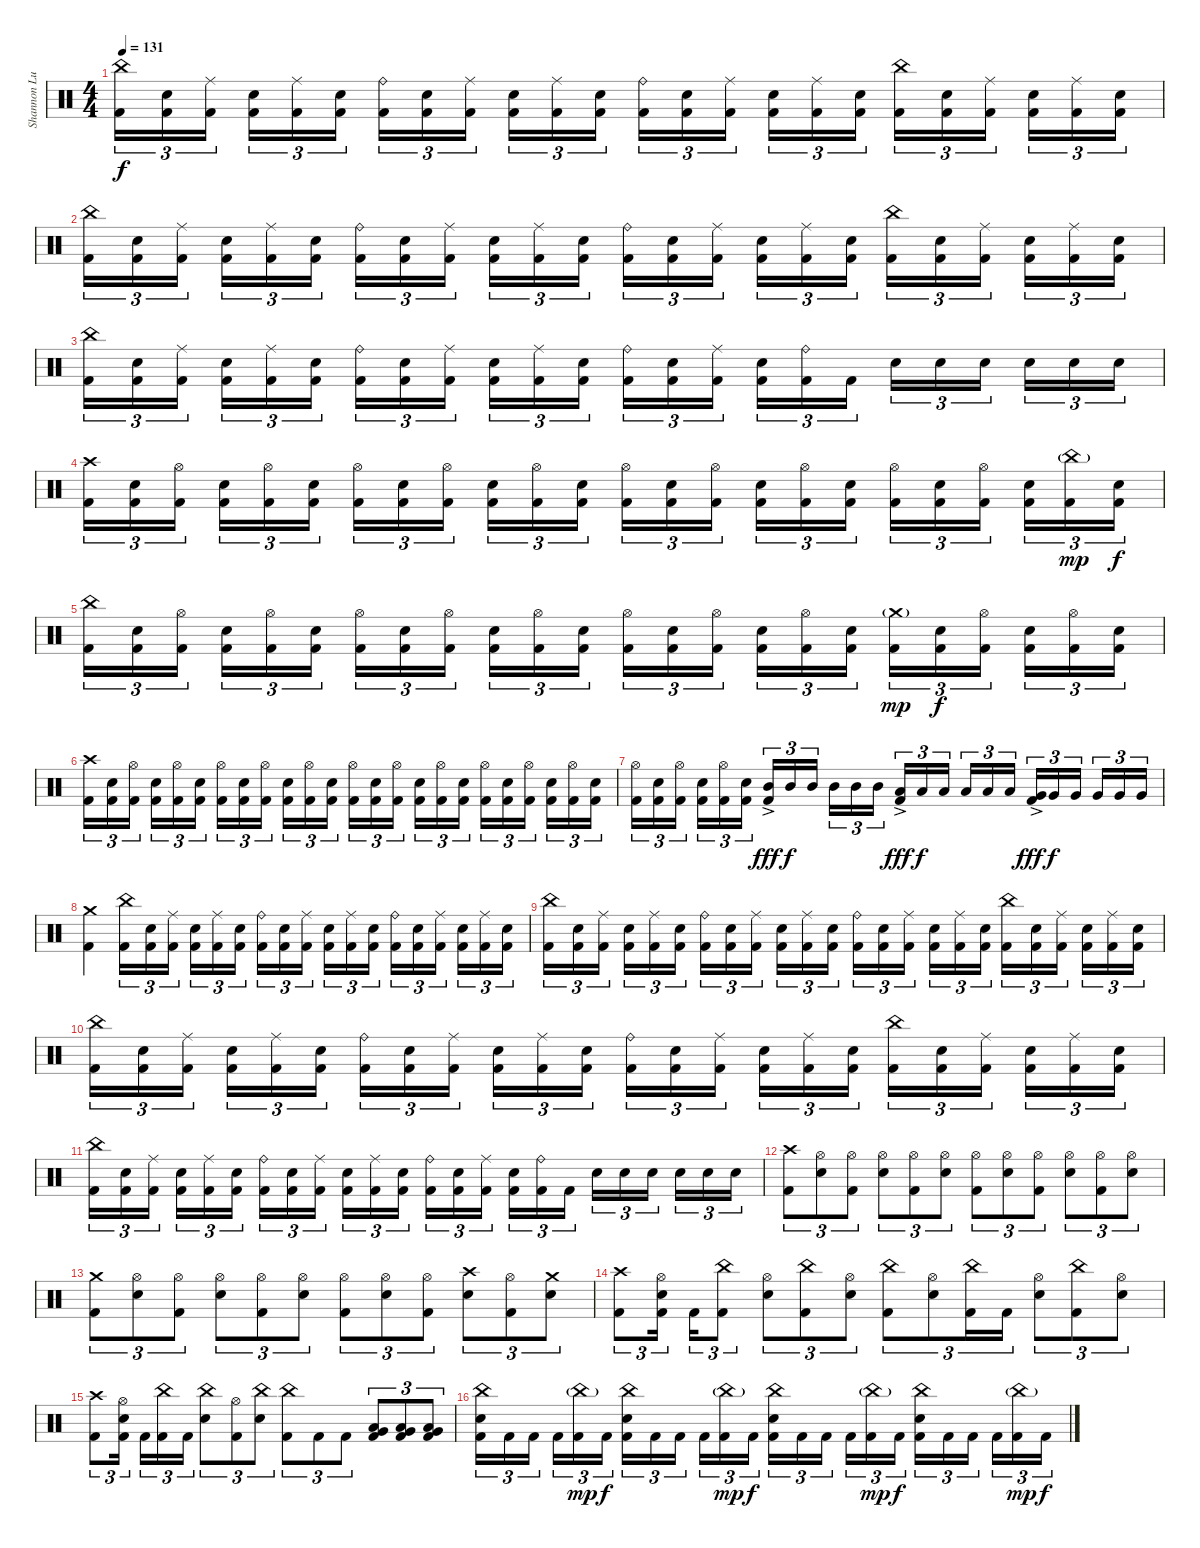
\track ("Shannon Lucas [Drums (Since 2007)]" "Shannon Lu") {instrument percussion}
\staff {score}
\articulation defaults
\ts (4 4)
\tempo 131
\clef neutral
\ks c
("China (hit)" "Kick (hit) 2").16{tu (3 2) dy f} ("Snare (hit) 2" "Kick (hit) 2").16{tu (3 2)} ("Ride (middle)" "Kick (hit) 2").16{tu (3 2)} ("Snare (hit) 2" "Kick (hit) 2").16{tu (3 2)} ("Ride (middle)" "Kick (hit) 2").16{tu (3 2)} ("Snare (hit) 2" "Kick (hit) 2").16{tu (3 2)} ("Ride (bell)" "Kick (hit) 2").16{tu (3 2)} ("Snare (hit) 2" "Kick (hit) 2").16{tu (3 2)} ("Ride (middle)" "Kick (hit) 2").16{tu (3 2)} ("Snare (hit) 2" "Kick (hit) 2").16{tu (3 2)} ("Ride (middle)" "Kick (hit) 2").16{tu (3 2)} ("Snare (hit) 2" "Kick (hit) 2").16{tu (3 2)} ("Ride (bell)" "Kick (hit) 2").16{tu (3 2)} ("Snare (hit) 2" "Kick (hit) 2").16{tu (3 2)} ("Ride (middle)" "Kick (hit) 2").16{tu (3 2)} ("Snare (hit) 2" "Kick (hit) 2").16{tu (3 2)} ("Ride (middle)" "Kick (hit) 2").16{tu (3 2)} ("Snare (hit) 2" "Kick (hit) 2").16{tu (3 2)} ("China (hit)" "Kick (hit) 2").16{tu (3 2)} ("Snare (hit) 2" "Kick (hit) 2").16{tu (3 2)} ("Ride (middle)" "Kick (hit) 2").16{tu (3 2)} ("Snare (hit) 2" "Kick (hit) 2").16{tu (3 2)} ("Ride (middle)" "Kick (hit) 2").16{tu (3 2)} ("Snare (hit) 2" "Kick (hit) 2").16{tu (3 2)} |
("China (hit)" "Kick (hit) 2").16{tu (3 2)} ("Snare (hit) 2" "Kick (hit) 2").16{tu (3 2)} ("Ride (middle)" "Kick (hit) 2").16{tu (3 2)} ("Snare (hit) 2" "Kick (hit) 2").16{tu (3 2)} ("Ride (middle)" "Kick (hit) 2").16{tu (3 2)} ("Snare (hit) 2" "Kick (hit) 2").16{tu (3 2)} ("Ride (bell)" "Kick (hit) 2").16{tu (3 2)} ("Snare (hit) 2" "Kick (hit) 2").16{tu (3 2)} ("Ride (middle)" "Kick (hit) 2").16{tu (3 2)} ("Snare (hit) 2" "Kick (hit) 2").16{tu (3 2)} ("Ride (middle)" "Kick (hit) 2").16{tu (3 2)} ("Snare (hit) 2" "Kick (hit) 2").16{tu (3 2)} ("Ride (bell)" "Kick (hit) 2").16{tu (3 2)} ("Snare (hit) 2" "Kick (hit) 2").16{tu (3 2)} ("Ride (middle)" "Kick (hit) 2").16{tu (3 2)} ("Snare (hit) 2" "Kick (hit) 2").16{tu (3 2)} ("Ride (middle)" "Kick (hit) 2").16{tu (3 2)} ("Snare (hit) 2" "Kick (hit) 2").16{tu (3 2)} ("China (hit)" "Kick (hit) 2").16{tu (3 2)} ("Snare (hit) 2" "Kick (hit) 2").16{tu (3 2)} ("Ride (middle)" "Kick (hit) 2").16{tu (3 2)} ("Snare (hit) 2" "Kick (hit) 2").16{tu (3 2)} ("Ride (middle)" "Kick (hit) 2").16{tu (3 2)} ("Snare (hit) 2" "Kick (hit) 2").16{tu (3 2)} |
("China (hit)" "Kick (hit) 2").16{tu (3 2)} ("Snare (hit) 2" "Kick (hit) 2").16{tu (3 2)} ("Ride (middle)" "Kick (hit) 2").16{tu (3 2)} ("Snare (hit) 2" "Kick (hit) 2").16{tu (3 2)} ("Ride (middle)" "Kick (hit) 2").16{tu (3 2)} ("Snare (hit) 2" "Kick (hit) 2").16{tu (3 2)} ("Ride (bell)" "Kick (hit) 2").16{tu (3 2)} ("Snare (hit) 2" "Kick (hit) 2").16{tu (3 2)} ("Ride (middle)" "Kick (hit) 2").16{tu (3 2)} ("Snare (hit) 2" "Kick (hit) 2").16{tu (3 2)} ("Ride (middle)" "Kick (hit) 2").16{tu (3 2)} ("Snare (hit) 2" "Kick (hit) 2").16{tu (3 2)} ("Ride (bell)" "Kick (hit) 2").16{tu (3 2)} ("Snare (hit) 2" "Kick (hit) 2").16{tu (3 2)} ("Ride (middle)" "Kick (hit) 2").16{tu (3 2)} ("Snare (hit) 2" "Kick (hit) 2").16{tu (3 2)} ("Ride (bell)" "Kick (hit) 2").16{tu (3 2)} "Kick (hit) 2".16{tu (3 2)} "Snare (hit) 2".16{tu (3 2)} "Snare (hit) 2".16{tu (3 2)} "Snare (hit) 2".16{tu (3 2)} "Snare (hit) 2".16{tu (3 2)} "Snare (hit) 2".16{tu (3 2)} "Snare (hit) 2".16{tu (3 2)} |
("Crash high (hit)" "Kick (hit) 2").16{tu (3 2)} ("Snare (hit) 2" "Kick (hit) 2").16{tu (3 2)} ("Hi-Hat (open)" "Kick (hit) 2").16{tu (3 2)} ("Snare (hit) 2" "Kick (hit) 2").16{tu (3 2)} ("Hi-Hat (open)" "Kick (hit) 2").16{tu (3 2)} ("Snare (hit) 2" "Kick (hit) 2").16{tu (3 2)} ("Hi-Hat (open)" "Kick (hit) 2").16{tu (3 2)} ("Snare (hit) 2" "Kick (hit) 2").16{tu (3 2)} ("Hi-Hat (open)" "Kick (hit) 2").16{tu (3 2)} ("Snare (hit) 2" "Kick (hit) 2").16{tu (3 2)} ("Hi-Hat (open)" "Kick (hit) 2").16{tu (3 2)} ("Snare (hit) 2" "Kick (hit) 2").16{tu (3 2)} ("Hi-Hat (open)" "Kick (hit) 2").16{tu (3 2)} ("Snare (hit) 2" "Kick (hit) 2").16{tu (3 2)} ("Hi-Hat (open)" "Kick (hit) 2").16{tu (3 2)} ("Snare (hit) 2" "Kick (hit) 2").16{tu (3 2)} ("Hi-Hat (open)" "Kick (hit) 2").16{tu (3 2)} ("Snare (hit) 2" "Kick (hit) 2").16{tu (3 2)} ("Hi-Hat (open)" "Kick (hit) 2").16{tu (3 2)} ("Snare (hit) 2" "Kick (hit) 2").16{tu (3 2)} ("Hi-Hat (open)" "Kick (hit) 2").16{tu (3 2)} ("Snare (hit) 2" "Kick (hit) 2").16{tu (3 2)} ("China (hit)"{g} "Kick (hit) 2").16{tu (3 2) dy mp} ("Snare (hit) 2" "Kick (hit) 2").16{tu (3 2) dy f} |
("China (hit)" "Kick (hit) 2").16{tu (3 2)} ("Snare (hit) 2" "Kick (hit) 2").16{tu (3 2)} ("Hi-Hat (open)" "Kick (hit) 2").16{tu (3 2)} ("Snare (hit) 2" "Kick (hit) 2").16{tu (3 2)} ("Hi-Hat (open)" "Kick (hit) 2").16{tu (3 2)} ("Snare (hit) 2" "Kick (hit) 2").16{tu (3 2)} ("Hi-Hat (open)" "Kick (hit) 2").16{tu (3 2)} ("Snare (hit) 2" "Kick (hit) 2").16{tu (3 2)} ("Hi-Hat (open)" "Kick (hit) 2").16{tu (3 2)} ("Snare (hit) 2" "Kick (hit) 2").16{tu (3 2)} ("Hi-Hat (open)" "Kick (hit) 2").16{tu (3 2)} ("Snare (hit) 2" "Kick (hit) 2").16{tu (3 2)} ("Hi-Hat (open)" "Kick (hit) 2").16{tu (3 2)} ("Snare (hit) 2" "Kick (hit) 2").16{tu (3 2)} ("Hi-Hat (open)" "Kick (hit) 2").16{tu (3 2)} ("Snare (hit) 2" "Kick (hit) 2").16{tu (3 2)} ("Hi-Hat (open)" "Kick (hit) 2").16{tu (3 2)} ("Snare (hit) 2" "Kick (hit) 2").16{tu (3 2)} ("Crash medium (hit)"{g} "Kick (hit) 2").16{tu (3 2) dy mp} ("Snare (hit) 2" "Kick (hit) 2").16{tu (3 2) dy f} ("Hi-Hat (open)" "Kick (hit) 2").16{tu (3 2)} ("Snare (hit) 2" "Kick (hit) 2").16{tu (3 2)} ("Hi-Hat (open)" "Kick (hit) 2").16{tu (3 2)} ("Snare (hit) 2" "Kick (hit) 2").16{tu (3 2)} |
("Crash high (hit)" "Kick (hit) 2").16{tu (3 2)} ("Snare (hit) 2" "Kick (hit) 2").16{tu (3 2)} ("Hi-Hat (open)" "Kick (hit) 2").16{tu (3 2)} ("Snare (hit) 2" "Kick (hit) 2").16{tu (3 2)} ("Hi-Hat (open)" "Kick (hit) 2").16{tu (3 2)} ("Snare (hit) 2" "Kick (hit) 2").16{tu (3 2)} ("Hi-Hat (open)" "Kick (hit) 2").16{tu (3 2)} ("Snare (hit) 2" "Kick (hit) 2").16{tu (3 2)} ("Hi-Hat (open)" "Kick (hit) 2").16{tu (3 2)} ("Snare (hit) 2" "Kick (hit) 2").16{tu (3 2)} ("Hi-Hat (open)" "Kick (hit) 2").16{tu (3 2)} ("Snare (hit) 2" "Kick (hit) 2").16{tu (3 2)} ("Hi-Hat (open)" "Kick (hit) 2").16{tu (3 2)} ("Snare (hit) 2" "Kick (hit) 2").16{tu (3 2)} ("Hi-Hat (open)" "Kick (hit) 2").16{tu (3 2)} ("Snare (hit) 2" "Kick (hit) 2").16{tu (3 2)} ("Hi-Hat (open)" "Kick (hit) 2").16{tu (3 2)} ("Snare (hit) 2" "Kick (hit) 2").16{tu (3 2)} ("Hi-Hat (open)" "Kick (hit) 2").16{tu (3 2)} ("Snare (hit) 2" "Kick (hit) 2").16{tu (3 2)} ("Hi-Hat (open)" "Kick (hit) 2").16{tu (3 2)} ("Snare (hit) 2" "Kick (hit) 2").16{tu (3 2)} ("Hi-Hat (open)" "Kick (hit) 2").16{tu (3 2)} ("Snare (hit) 2" "Kick (hit) 2").16{tu (3 2)} |
("Hi-Hat (open)" "Kick (hit) 2").16{tu (3 2)} ("Snare (hit) 2" "Kick (hit) 2").16{tu (3 2)} ("Hi-Hat (open)" "Kick (hit) 2").16{tu (3 2)} ("Snare (hit) 2" "Kick (hit) 2").16{tu (3 2)} ("Hi-Hat (open)" "Kick (hit) 2").16{tu (3 2)} ("Snare (hit) 2" "Kick (hit) 2").16{tu (3 2)} ("Mid Tom (hit)"{ac} "Kick (hit) 2").16{tu (3 2) dy fff} "Mid Tom (hit)".16{tu (3 2) dy f} "Mid Tom (hit)".16{tu (3 2)} "Mid Tom (hit)".16{tu (3 2)} "Mid Tom (hit)".16{tu (3 2)} "Mid Tom (hit)".16{tu (3 2)} ("Low Tom (hit)"{ac} "Kick (hit) 2").16{tu (3 2) dy fff} "Low Tom (hit)".16{tu (3 2) dy f} "Low Tom (hit)".16{tu (3 2)} "Low Tom (hit)".16{tu (3 2)} "Low Tom (hit)".16{tu (3 2)} "Low Tom (hit)".16{tu (3 2)} ("Very Low Tom (hit)"{ac} "Kick (hit) 2").16{tu (3 2) dy fff} "Very Low Tom (hit)".16{tu (3 2) dy f} "Very Low Tom (hit)".16{tu (3 2)} "Very Low Tom (hit)".16{tu (3 2)} "Very Low Tom (hit)".16{tu (3 2)} "Very Low Tom (hit)".16{tu (3 2)} |
("Crash medium (hit)" "Kick (hit) 2").4 ("China (hit)" "Kick (hit) 2").16{tu (3 2)} ("Snare (hit) 2" "Kick (hit) 2").16{tu (3 2)} ("Ride (middle)" "Kick (hit) 2").16{tu (3 2)} ("Snare (hit) 2" "Kick (hit) 2").16{tu (3 2)} ("Ride (middle)" "Kick (hit) 2").16{tu (3 2)} ("Snare (hit) 2" "Kick (hit) 2").16{tu (3 2)} ("Ride (bell)" "Kick (hit) 2").16{tu (3 2)} ("Snare (hit) 2" "Kick (hit) 2").16{tu (3 2)} ("Ride (middle)" "Kick (hit) 2").16{tu (3 2)} ("Snare (hit) 2" "Kick (hit) 2").16{tu (3 2)} ("Ride (middle)" "Kick (hit) 2").16{tu (3 2)} ("Snare (hit) 2" "Kick (hit) 2").16{tu (3 2)} ("Ride (bell)" "Kick (hit) 2").16{tu (3 2)} ("Snare (hit) 2" "Kick (hit) 2").16{tu (3 2)} ("Ride (middle)" "Kick (hit) 2").16{tu (3 2)} ("Snare (hit) 2" "Kick (hit) 2").16{tu (3 2)} ("Ride (middle)" "Kick (hit) 2").16{tu (3 2)} ("Snare (hit) 2" "Kick (hit) 2").16{tu (3 2)} |
("China (hit)" "Kick (hit) 2").16{tu (3 2)} ("Snare (hit) 2" "Kick (hit) 2").16{tu (3 2)} ("Ride (middle)" "Kick (hit) 2").16{tu (3 2)} ("Snare (hit) 2" "Kick (hit) 2").16{tu (3 2)} ("Ride (middle)" "Kick (hit) 2").16{tu (3 2)} ("Snare (hit) 2" "Kick (hit) 2").16{tu (3 2)} ("Ride (bell)" "Kick (hit) 2").16{tu (3 2)} ("Snare (hit) 2" "Kick (hit) 2").16{tu (3 2)} ("Ride (middle)" "Kick (hit) 2").16{tu (3 2)} ("Snare (hit) 2" "Kick (hit) 2").16{tu (3 2)} ("Ride (middle)" "Kick (hit) 2").16{tu (3 2)} ("Snare (hit) 2" "Kick (hit) 2").16{tu (3 2)} ("Ride (bell)" "Kick (hit) 2").16{tu (3 2)} ("Snare (hit) 2" "Kick (hit) 2").16{tu (3 2)} ("Ride (middle)" "Kick (hit) 2").16{tu (3 2)} ("Snare (hit) 2" "Kick (hit) 2").16{tu (3 2)} ("Ride (middle)" "Kick (hit) 2").16{tu (3 2)} ("Snare (hit) 2" "Kick (hit) 2").16{tu (3 2)} ("China (hit)" "Kick (hit) 2").16{tu (3 2)} ("Snare (hit) 2" "Kick (hit) 2").16{tu (3 2)} ("Ride (middle)" "Kick (hit) 2").16{tu (3 2)} ("Snare (hit) 2" "Kick (hit) 2").16{tu (3 2)} ("Ride (middle)" "Kick (hit) 2").16{tu (3 2)} ("Snare (hit) 2" "Kick (hit) 2").16{tu (3 2)} |
("China (hit)" "Kick (hit) 2").16{tu (3 2)} ("Snare (hit) 2" "Kick (hit) 2").16{tu (3 2)} ("Ride (middle)" "Kick (hit) 2").16{tu (3 2)} ("Snare (hit) 2" "Kick (hit) 2").16{tu (3 2)} ("Ride (middle)" "Kick (hit) 2").16{tu (3 2)} ("Snare (hit) 2" "Kick (hit) 2").16{tu (3 2)} ("Ride (bell)" "Kick (hit) 2").16{tu (3 2)} ("Snare (hit) 2" "Kick (hit) 2").16{tu (3 2)} ("Ride (middle)" "Kick (hit) 2").16{tu (3 2)} ("Snare (hit) 2" "Kick (hit) 2").16{tu (3 2)} ("Ride (middle)" "Kick (hit) 2").16{tu (3 2)} ("Snare (hit) 2" "Kick (hit) 2").16{tu (3 2)} ("Ride (bell)" "Kick (hit) 2").16{tu (3 2)} ("Snare (hit) 2" "Kick (hit) 2").16{tu (3 2)} ("Ride (middle)" "Kick (hit) 2").16{tu (3 2)} ("Snare (hit) 2" "Kick (hit) 2").16{tu (3 2)} ("Ride (middle)" "Kick (hit) 2").16{tu (3 2)} ("Snare (hit) 2" "Kick (hit) 2").16{tu (3 2)} ("China (hit)" "Kick (hit) 2").16{tu (3 2)} ("Snare (hit) 2" "Kick (hit) 2").16{tu (3 2)} ("Ride (middle)" "Kick (hit) 2").16{tu (3 2)} ("Snare (hit) 2" "Kick (hit) 2").16{tu (3 2)} ("Ride (middle)" "Kick (hit) 2").16{tu (3 2)} ("Snare (hit) 2" "Kick (hit) 2").16{tu (3 2)} |
("China (hit)" "Kick (hit) 2").16{tu (3 2)} ("Snare (hit) 2" "Kick (hit) 2").16{tu (3 2)} ("Ride (middle)" "Kick (hit) 2").16{tu (3 2)} ("Snare (hit) 2" "Kick (hit) 2").16{tu (3 2)} ("Ride (middle)" "Kick (hit) 2").16{tu (3 2)} ("Snare (hit) 2" "Kick (hit) 2").16{tu (3 2)} ("Ride (bell)" "Kick (hit) 2").16{tu (3 2)} ("Snare (hit) 2" "Kick (hit) 2").16{tu (3 2)} ("Ride (middle)" "Kick (hit) 2").16{tu (3 2)} ("Snare (hit) 2" "Kick (hit) 2").16{tu (3 2)} ("Ride (middle)" "Kick (hit) 2").16{tu (3 2)} ("Snare (hit) 2" "Kick (hit) 2").16{tu (3 2)} ("Ride (bell)" "Kick (hit) 2").16{tu (3 2)} ("Snare (hit) 2" "Kick (hit) 2").16{tu (3 2)} ("Ride (middle)" "Kick (hit) 2").16{tu (3 2)} ("Snare (hit) 2" "Kick (hit) 2").16{tu (3 2)} ("Ride (bell)" "Kick (hit) 2").16{tu (3 2)} "Kick (hit) 2".16{tu (3 2)} "Snare (hit) 2".16{tu (3 2)} "Snare (hit) 2".16{tu (3 2)} "Snare (hit) 2".16{tu (3 2)} "Snare (hit) 2".16{tu (3 2)} "Snare (hit) 2".16{tu (3 2)} "Snare (hit) 2".16{tu (3 2)} |
("Crash high (hit)" "Kick (hit) 2").8{tu (3 2)} ("Hi-Hat (open)" "Snare (hit) 2").8{tu (3 2)} ("Hi-Hat (open)" "Kick (hit) 2").8{tu (3 2)} ("Hi-Hat (open)" "Snare (hit) 2").8{tu (3 2)} ("Hi-Hat (open)" "Kick (hit) 2").8{tu (3 2)} ("Hi-Hat (open)" "Snare (hit) 2").8{tu (3 2)} ("Hi-Hat (open)" "Kick (hit) 2").8{tu (3 2)} ("Hi-Hat (open)" "Snare (hit) 2").8{tu (3 2)} ("Hi-Hat (open)" "Kick (hit) 2").8{tu (3 2)} ("Hi-Hat (open)" "Snare (hit) 2").8{tu (3 2)} ("Hi-Hat (open)" "Kick (hit) 2").8{tu (3 2)} ("Hi-Hat (open)" "Snare (hit) 2").8{tu (3 2)} |
("Crash medium (hit)" "Kick (hit) 2").8{tu (3 2)} ("Hi-Hat (open)" "Snare (hit) 2").8{tu (3 2)} ("Hi-Hat (open)" "Kick (hit) 2").8{tu (3 2)} ("Hi-Hat (open)" "Snare (hit) 2").8{tu (3 2)} ("Hi-Hat (open)" "Kick (hit) 2").8{tu (3 2)} ("Hi-Hat (open)" "Snare (hit) 2").8{tu (3 2)} ("Hi-Hat (open)" "Kick (hit) 2").8{tu (3 2)} ("Hi-Hat (open)" "Snare (hit) 2").8{tu (3 2)} ("Hi-Hat (open)" "Kick (hit) 2").8{tu (3 2)} ("Crash high (hit)" "Snare (hit) 2").8{tu (3 2)} ("Hi-Hat (open)" "Kick (hit) 2").8{tu (3 2)} ("Crash medium (hit)" "Snare (hit) 2").8{tu (3 2)} |
("Crash high (hit)" "Kick (hit) 2").8{tu (3 2)} ("Snare (hit) 2" "Hi-Hat (open)" "Kick (hit) 2").16{tu (3 2)} "Kick (hit) 2".16{tu (3 2)} ("China (hit)" "Kick (hit) 2").8{tu (3 2)} ("Hi-Hat (open)" "Snare (hit) 2").8{tu (3 2)} ("China (hit)" "Kick (hit) 2").8{tu (3 2)} ("Hi-Hat (open)" "Snare (hit) 2").8{tu (3 2)} ("China (hit)" "Kick (hit) 2").8{tu (3 2)} ("Hi-Hat (open)" "Snare (hit) 2").8{tu (3 2)} ("China (hit)" "Kick (hit) 2").16{tu (3 2)} "Kick (hit) 2".16{tu (3 2)} ("Hi-Hat (open)" "Snare (hit) 2").8{tu (3 2)} ("China (hit)" "Kick (hit) 2").8{tu (3 2)} ("Hi-Hat (open)" "Snare (hit) 2").8{tu (3 2)} |
("Crash high (hit)" "Kick (hit) 2").8{tu (3 2)} ("Snare (hit) 2" "Hi-Hat (open)" "Kick (hit) 2").16{tu (3 2)} "Kick (hit) 2".16{tu (3 2)} ("China (hit)" "Kick (hit) 2").16{tu (3 2)} "Kick (hit) 2".16{tu (3 2)} ("China (hit)" "Snare (hit) 2").8{tu (3 2)} ("Hi-Hat (open)" "Kick (hit) 2").8{tu (3 2)} ("China (hit)" "Snare (hit) 2").8{tu (3 2)} ("China (hit)" "Kick (hit) 2").8{tu (3 2)} "Kick (hit) 2".8{tu (3 2)} "Kick (hit) 2".8{tu (3 2)} ("Very Low Tom (hit)" "Low Tom (hit)" "Kick (hit) 2").8{tu (3 2)} ("Low Floor Tom (hit)" "Very Low Tom (hit)" "Kick (hit) 2").8{tu (3 2)} ("Very Low Tom (hit)" "Low Floor Tom (hit)" "Kick (hit) 2").8{tu (3 2)} |
("China (hit)" "Snare (hit) 2" "Kick (hit) 2").16{tu (3 2)} "Kick (hit) 2".16{tu (3 2)} "Kick (hit) 2".16{tu (3 2)} "Kick (hit) 2".16{tu (3 2)} ("China (hit)"{g} "Kick (hit) 2").16{tu (3 2) dy mp} "Kick (hit) 2".16{tu (3 2) dy f} ("China (hit)" "Snare (hit) 2" "Kick (hit) 2").16{tu (3 2)} "Kick (hit) 2".16{tu (3 2)} "Kick (hit) 2".16{tu (3 2)} "Kick (hit) 2".16{tu (3 2)} ("China (hit)"{g} "Kick (hit) 2").16{tu (3 2) dy mp} "Kick (hit) 2".16{tu (3 2) dy f} ("China (hit)" "Snare (hit) 2" "Kick (hit) 2").16{tu (3 2)} "Kick (hit) 2".16{tu (3 2)} "Kick (hit) 2".16{tu (3 2)} "Kick (hit) 2".16{tu (3 2)} ("China (hit)"{g} "Kick (hit) 2").16{tu (3 2) dy mp} "Kick (hit) 2".16{tu (3 2) dy f} ("China (hit)" "Snare (hit) 2" "Kick (hit) 2").16{tu (3 2)} "Kick (hit) 2".16{tu (3 2)} "Kick (hit) 2".16{tu (3 2)} "Kick (hit) 2".16{tu (3 2)} ("China (hit)"{g} "Kick (hit) 2").16{tu (3 2) dy mp} "Kick (hit) 2".16{tu (3 2) dy f}
